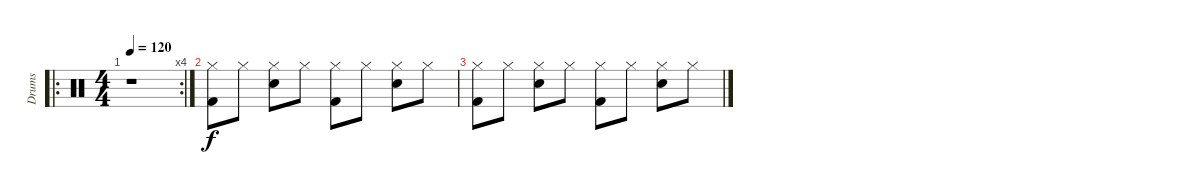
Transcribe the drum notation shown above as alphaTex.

\track ("Drums" "Drums") {instrument percussion}
\staff {score}
\articulation defaults
\ro
\rc 4
\ts (4 4)
\tempo 120
\clef neutral
\ks c
r.1{dy f} |
("Kick (hit) 2" "Hi-Hat (closed)").8 "Hi-Hat (closed)".8 ("Snare (hit) 2" "Hi-Hat (closed)").8 "Hi-Hat (closed)".8 ("Kick (hit) 2" "Hi-Hat (closed)").8 "Hi-Hat (closed)".8 ("Snare (hit) 2" "Hi-Hat (closed)").8 "Hi-Hat (closed)".8 |
("Kick (hit) 2" "Hi-Hat (closed)").8 "Hi-Hat (closed)".8 ("Snare (hit) 2" "Hi-Hat (closed)").8 "Hi-Hat (closed)".8 ("Kick (hit) 2" "Hi-Hat (closed)").8 "Hi-Hat (closed)".8 ("Snare (hit) 2" "Hi-Hat (closed)").8 "Hi-Hat (closed)".8
